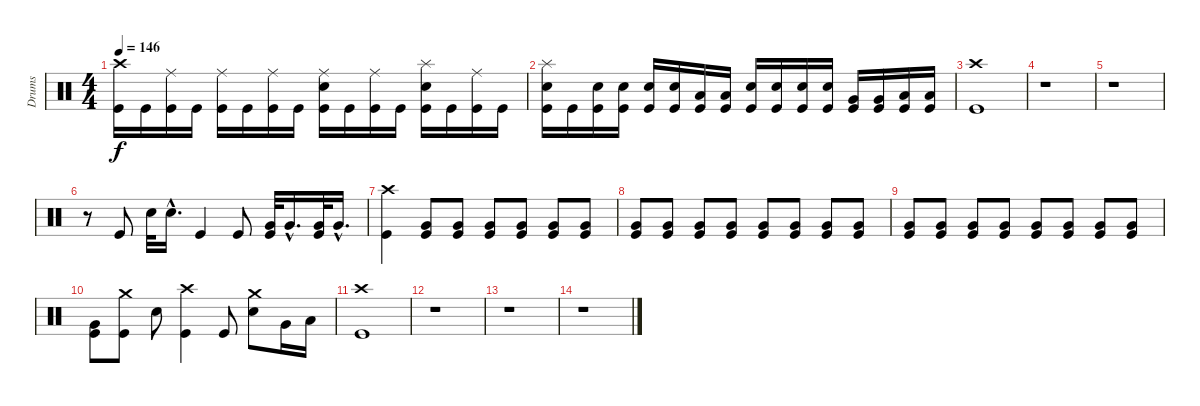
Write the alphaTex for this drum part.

\track ("Drums" "Drums") {instrument percussion}
\staff {score}
\articulation defaults
\ts (4 4)
\tempo 146
\clef neutral
\ks c
("Crash high (hit)" "Kick (hit)").16{dy f} "Kick (hit)".16 ("Ride (middle)" "Kick (hit)").16 "Kick (hit)".16 ("Ride (middle)" "Kick (hit)").16 "Kick (hit)".16 ("Ride (middle)" "Kick (hit)").16 "Kick (hit)".16 ("Ride (middle)" "Electric Snare (hit)" "Kick (hit)").16 "Kick (hit)".16 ("Ride (middle)" "Kick (hit)").16 "Kick (hit)".16 ("Splash (hit)" "Electric Snare (hit)" "Kick (hit)").16 "Kick (hit)".16 ("Ride (middle)" "Kick (hit)").16 "Kick (hit)".16 |
("Splash (hit)" "Electric Snare (hit)" "Kick (hit)").16 "Kick (hit)".16 ("Electric Snare (hit)" "Kick (hit)").16 ("Electric Snare (hit)" "Kick (hit)").16 ("Electric Snare (hit)" "Kick (hit)").16 ("Electric Snare (hit)" "Kick (hit)").16 ("Low Tom (hit)" "Kick (hit)").16 ("Low Tom (hit)" "Kick (hit)").16 ("Electric Snare (hit)" "Kick (hit)").16 ("Electric Snare (hit)" "Kick (hit)").16 ("Electric Snare (hit)" "Kick (hit)").16 ("Electric Snare (hit)" "Kick (hit)").16 ("Very Low Tom (hit)" "Kick (hit)").16 ("Very Low Tom (hit)" "Kick (hit)").16 ("Low Floor Tom (hit)" "Kick (hit)").16 ("Low Floor Tom (hit)" "Kick (hit)").16 |
("Crash high (hit)" "Kick (hit)").1 |
r.1 |
r.1 |
r.8 "Kick (hit)".8 "Electric Snare (hit)".32 "Electric Snare (hit)"{hac}.16{d} "Kick (hit)".4 "Kick (hit)".8 ("Very Low Tom (hit)" "Kick (hit)").32 "Very Low Tom (hit)"{hac}.16{d} ("Very Low Tom (hit)" "Kick (hit)").32 "Very Low Tom (hit)"{hac}.16{d} |
("Crash high (hit)" "Kick (hit)").4 ("Very Low Tom (hit)" "Kick (hit)").8 ("Very Low Tom (hit)" "Kick (hit)").8 ("Very Low Tom (hit)" "Kick (hit)").8 ("Very Low Tom (hit)" "Kick (hit)").8 ("Very Low Tom (hit)" "Kick (hit)").8 ("Very Low Tom (hit)" "Kick (hit)").8 |
("Very Low Tom (hit)" "Kick (hit)").8 ("Very Low Tom (hit)" "Kick (hit)").8 ("Very Low Tom (hit)" "Kick (hit)").8 ("Very Low Tom (hit)" "Kick (hit)").8 ("Very Low Tom (hit)" "Kick (hit)").8 ("Very Low Tom (hit)" "Kick (hit)").8 ("Very Low Tom (hit)" "Kick (hit)").8 ("Very Low Tom (hit)" "Kick (hit)").8 |
("Very Low Tom (hit)" "Kick (hit)").8 ("Very Low Tom (hit)" "Kick (hit)").8 ("Very Low Tom (hit)" "Kick (hit)").8 ("Very Low Tom (hit)" "Kick (hit)").8 ("Very Low Tom (hit)" "Kick (hit)").8 ("Very Low Tom (hit)" "Kick (hit)").8 ("Very Low Tom (hit)" "Kick (hit)").8 ("Very Low Tom (hit)" "Kick (hit)").8 |
("Very Low Tom (hit)" "Kick (hit)").8 ("Crash medium (hit)" "Kick (hit)").8 "Electric Snare (hit)".8 ("Crash high (hit)" "Kick (hit)").4 "Kick (hit)".8 ("Crash medium (hit)" "Electric Snare (hit)").8 "Very Low Tom (hit)".16 "Low Floor Tom (hit)".16 |
("Crash high (hit)" "Kick (hit)").1 |
r.1 |
r.1 |
r.1
